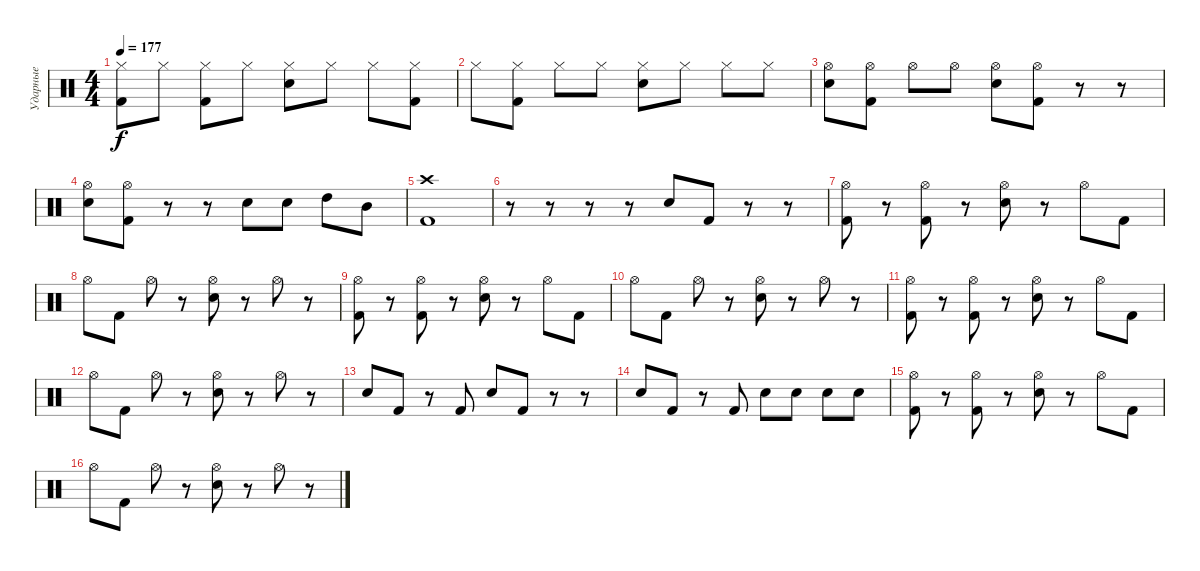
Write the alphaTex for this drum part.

\track ("Ударные" "Ударные") {instrument percussion}
\staff {score}
\articulation defaults
\ts (4 4)
\tempo 177
\clef neutral
\ks c
("Kick (hit) 2" "Hi-Hat (closed)").8{dy f} "Hi-Hat (closed)".8 ("Kick (hit) 2" "Hi-Hat (closed)").8 "Hi-Hat (closed)".8 ("Electric Snare (hit)" "Hi-Hat (closed)").8 "Hi-Hat (closed)".8 "Hi-Hat (closed)".8 ("Kick (hit) 2" "Hi-Hat (closed)").8 |
"Hi-Hat (closed)".8 ("Kick (hit) 2" "Hi-Hat (closed)").8 "Hi-Hat (closed)".8 "Hi-Hat (closed)".8 ("Electric Snare (hit)" "Hi-Hat (closed)").8 "Hi-Hat (closed)".8 "Hi-Hat (closed)".8 "Hi-Hat (closed)".8 |
("Electric Snare (hit)" "Hi-Hat (open)").8 ("Kick (hit) 2" "Hi-Hat (open)").8 "Hi-Hat (open)".8 "Hi-Hat (open)".8 ("Electric Snare (hit)" "Hi-Hat (open)").8 ("Kick (hit) 2" "Hi-Hat (open)").8 r.8 r.8 |
("Electric Snare (hit)" "Hi-Hat (open)").8 ("Kick (hit) 2" "Hi-Hat (open)").8 r.8 r.8 "Electric Snare (hit)".8 "Electric Snare (hit)".8 "High Tom (hit)".8 "Mid Tom (hit)".8 |
("Kick (hit) 2" "Crash high (hit)").1 |
r.8 r.8 r.8 r.8 "Electric Snare (hit)".8 "Kick (hit) 2".8 r.8 r.8 |
("Kick (hit) 2" "Hi-Hat (open)").8 r.8 ("Kick (hit) 2" "Hi-Hat (open)").8 r.8 ("Electric Snare (hit)" "Hi-Hat (open)").8 r.8 "Hi-Hat (open)".8 "Kick (hit) 2".8 |
"Hi-Hat (open)".8 "Kick (hit) 2".8 "Hi-Hat (open)".8 r.8 ("Electric Snare (hit)" "Hi-Hat (open)").8 r.8 "Hi-Hat (open)".8 r.8 |
("Kick (hit) 2" "Hi-Hat (open)").8 r.8 ("Kick (hit) 2" "Hi-Hat (open)").8 r.8 ("Electric Snare (hit)" "Hi-Hat (open)").8 r.8 "Hi-Hat (open)".8 "Kick (hit) 2".8 |
"Hi-Hat (open)".8 "Kick (hit) 2".8 "Hi-Hat (open)".8 r.8 ("Electric Snare (hit)" "Hi-Hat (open)").8 r.8 "Hi-Hat (open)".8 r.8 |
("Kick (hit) 2" "Hi-Hat (open)").8 r.8 ("Kick (hit) 2" "Hi-Hat (open)").8 r.8 ("Electric Snare (hit)" "Hi-Hat (open)").8 r.8 "Hi-Hat (open)".8 "Kick (hit) 2".8 |
"Hi-Hat (open)".8 "Kick (hit) 2".8 "Hi-Hat (open)".8 r.8 ("Electric Snare (hit)" "Hi-Hat (open)").8 r.8 "Hi-Hat (open)".8 r.8 |
"Electric Snare (hit)".8 "Kick (hit) 2".8 r.8 "Kick (hit) 2".8 "Electric Snare (hit)".8 "Kick (hit) 2".8 r.8 r.8 |
"Electric Snare (hit)".8 "Kick (hit) 2".8 r.8 "Kick (hit) 2".8 "Electric Snare (hit)".8 "Electric Snare (hit)".8 "Electric Snare (hit)".8 "Electric Snare (hit)".8 |
("Kick (hit) 2" "Hi-Hat (open)").8 r.8 ("Kick (hit) 2" "Hi-Hat (open)").8 r.8 ("Electric Snare (hit)" "Hi-Hat (open)").8 r.8 "Hi-Hat (open)".8 "Kick (hit) 2".8 |
"Hi-Hat (open)".8 "Kick (hit) 2".8 "Hi-Hat (open)".8 r.8 ("Electric Snare (hit)" "Hi-Hat (open)").8 r.8 "Hi-Hat (open)".8 r.8
